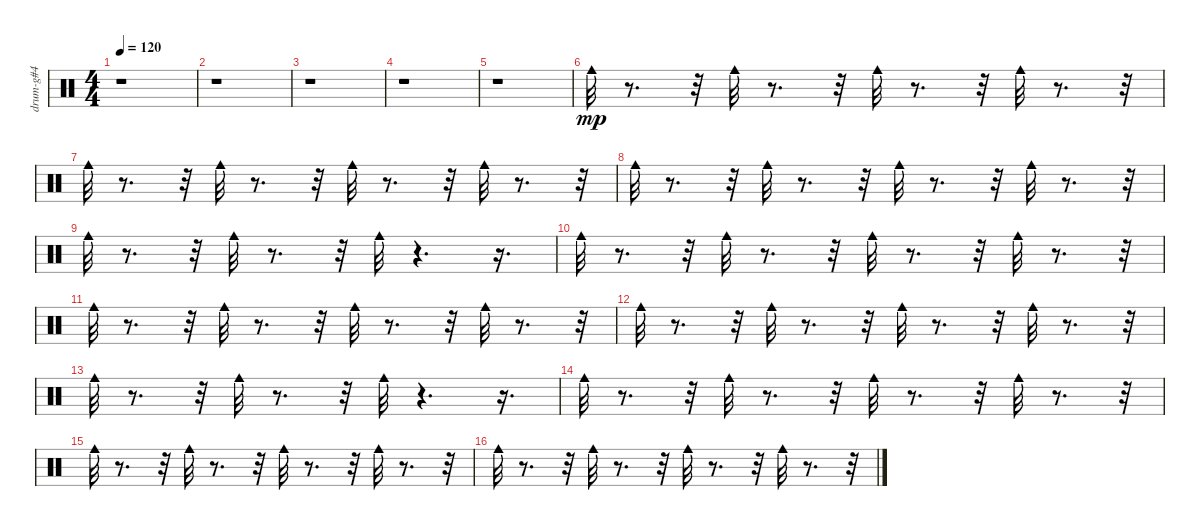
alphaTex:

\track ("drum-g#4" "drum-g#4") {instrument percussion}
\staff {score}
\articulation defaults
\ts (4 4)
\tempo 120
\clef neutral
\ks c
r.1{dy mp} |
r.1 |
r.1 |
r.1 |
r.1 |
"Cowbell medium (hit)".32 r.8{d} r.32 "Cowbell medium (hit)".32 r.8{d} r.32 "Cowbell medium (hit)".32 r.8{d} r.32 "Cowbell medium (hit)".32 r.8{d} r.32 |
"Cowbell medium (hit)".32 r.8{d} r.32 "Cowbell medium (hit)".32 r.8{d} r.32 "Cowbell medium (hit)".32 r.8{d} r.32 "Cowbell medium (hit)".32 r.8{d} r.32 |
"Cowbell medium (hit)".32 r.8{d} r.32 "Cowbell medium (hit)".32 r.8{d} r.32 "Cowbell medium (hit)".32 r.8{d} r.32 "Cowbell medium (hit)".32 r.8{d} r.32 |
"Cowbell medium (hit)".32 r.8{d} r.32 "Cowbell medium (hit)".32 r.8{d} r.32 "Cowbell medium (hit)".32 r.4{d} r.16{d} |
"Cowbell medium (hit)".32 r.8{d} r.32 "Cowbell medium (hit)".32 r.8{d} r.32 "Cowbell medium (hit)".32 r.8{d} r.32 "Cowbell medium (hit)".32 r.8{d} r.32 |
"Cowbell medium (hit)".32 r.8{d} r.32 "Cowbell medium (hit)".32 r.8{d} r.32 "Cowbell medium (hit)".32 r.8{d} r.32 "Cowbell medium (hit)".32 r.8{d} r.32 |
"Cowbell medium (hit)".32 r.8{d} r.32 "Cowbell medium (hit)".32 r.8{d} r.32 "Cowbell medium (hit)".32 r.8{d} r.32 "Cowbell medium (hit)".32 r.8{d} r.32 |
"Cowbell medium (hit)".32 r.8{d} r.32 "Cowbell medium (hit)".32 r.8{d} r.32 "Cowbell medium (hit)".32 r.4{d} r.16{d} |
"Cowbell medium (hit)".32 r.8{d} r.32 "Cowbell medium (hit)".32 r.8{d} r.32 "Cowbell medium (hit)".32 r.8{d} r.32 "Cowbell medium (hit)".32 r.8{d} r.32 |
"Cowbell medium (hit)".32 r.8{d} r.32 "Cowbell medium (hit)".32 r.8{d} r.32 "Cowbell medium (hit)".32 r.8{d} r.32 "Cowbell medium (hit)".32 r.8{d} r.32 |
"Cowbell medium (hit)".32 r.8{d} r.32 "Cowbell medium (hit)".32 r.8{d} r.32 "Cowbell medium (hit)".32 r.8{d} r.32 "Cowbell medium (hit)".32 r.8{d} r.32
